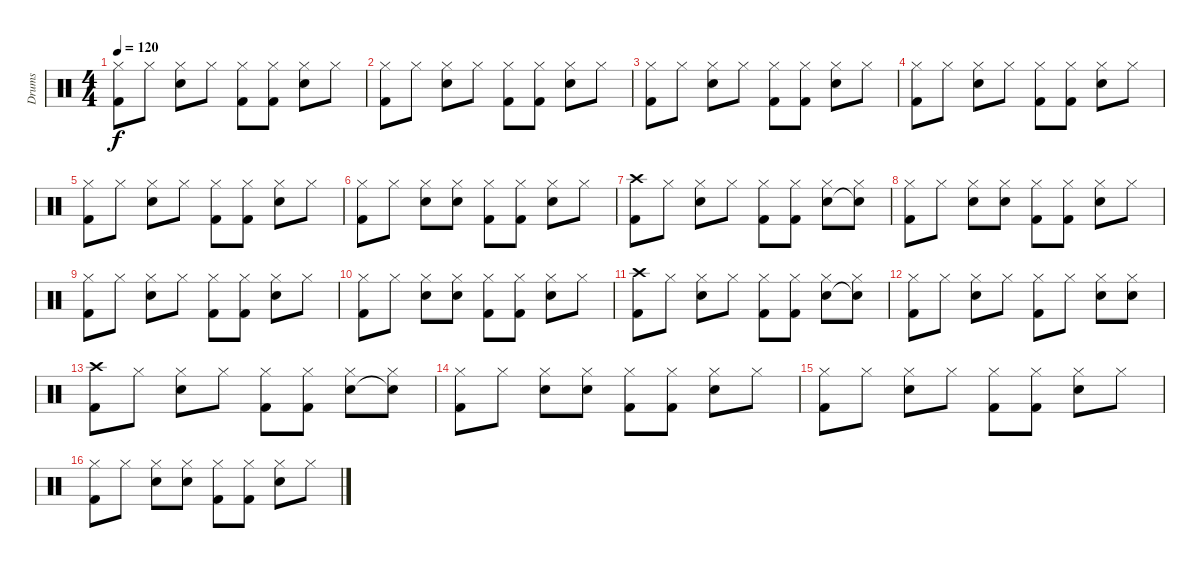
\track ("Drums" "Drums") {instrument percussion}
\staff {score}
\articulation defaults
\ts (4 4)
\tempo 120
\clef neutral
\ks c
("Hi-Hat (closed)" "Kick (hit) 2").8{dy f} "Hi-Hat (closed)".8 ("Hi-Hat (closed)" "Snare (hit) 2").8 "Hi-Hat (closed)".8 ("Hi-Hat (closed)" "Kick (hit) 2").8 ("Hi-Hat (closed)" "Kick (hit) 2").8 ("Hi-Hat (closed)" "Snare (hit) 2").8 "Hi-Hat (closed)".8 |
("Hi-Hat (closed)" "Kick (hit) 2").8 "Hi-Hat (closed)".8 ("Hi-Hat (closed)" "Snare (hit) 2").8 "Hi-Hat (closed)".8 ("Hi-Hat (closed)" "Kick (hit) 2").8 ("Hi-Hat (closed)" "Kick (hit) 2").8 ("Hi-Hat (closed)" "Snare (hit) 2").8 "Hi-Hat (closed)".8 |
("Hi-Hat (closed)" "Kick (hit) 2").8 "Hi-Hat (closed)".8 ("Hi-Hat (closed)" "Snare (hit) 2").8 "Hi-Hat (closed)".8 ("Hi-Hat (closed)" "Kick (hit) 2").8 ("Hi-Hat (closed)" "Kick (hit) 2").8 ("Hi-Hat (closed)" "Snare (hit) 2").8 "Hi-Hat (closed)".8 |
("Hi-Hat (closed)" "Kick (hit) 2").8 "Hi-Hat (closed)".8 ("Hi-Hat (closed)" "Snare (hit) 2").8 "Hi-Hat (closed)".8 ("Hi-Hat (closed)" "Kick (hit) 2").8 ("Hi-Hat (closed)" "Kick (hit) 2").8 ("Hi-Hat (closed)" "Snare (hit) 2").8 "Hi-Hat (closed)".8 |
("Hi-Hat (closed)" "Kick (hit) 2").8 "Hi-Hat (closed)".8 ("Hi-Hat (closed)" "Snare (hit) 2").8 "Hi-Hat (closed)".8 ("Hi-Hat (closed)" "Kick (hit) 2").8 ("Hi-Hat (closed)" "Kick (hit) 2").8 ("Hi-Hat (closed)" "Snare (hit) 2").8 "Hi-Hat (closed)".8 |
("Hi-Hat (closed)" "Kick (hit) 2").8 "Hi-Hat (closed)".8 ("Hi-Hat (closed)" "Snare (hit) 2").8 ("Hi-Hat (closed)" "Snare (hit) 2").8 ("Hi-Hat (closed)" "Kick (hit) 2").8 ("Hi-Hat (closed)" "Kick (hit) 2").8 ("Hi-Hat (closed)" "Snare (hit) 2").8 "Hi-Hat (closed)".8 |
("Kick (hit) 2" "Crash high (hit)").8 "Hi-Hat (closed)".8 ("Hi-Hat (closed)" "Snare (hit) 2").8 "Hi-Hat (closed)".8 ("Hi-Hat (closed)" "Kick (hit) 2").8 ("Hi-Hat (closed)" "Kick (hit) 2").8 ("Hi-Hat (closed)" "Snare (hit) 2").8 ("Hi-Hat (closed)" "Snare (hit)"{t}).8 |
("Hi-Hat (closed)" "Kick (hit) 2").8 "Hi-Hat (closed)".8 ("Hi-Hat (closed)" "Snare (hit) 2").8 ("Hi-Hat (closed)" "Snare (hit) 2").8 ("Hi-Hat (closed)" "Kick (hit) 2").8 ("Hi-Hat (closed)" "Kick (hit) 2").8 ("Hi-Hat (closed)" "Snare (hit) 2").8 "Hi-Hat (closed)".8 |
("Hi-Hat (closed)" "Kick (hit) 2").8 "Hi-Hat (closed)".8 ("Hi-Hat (closed)" "Snare (hit) 2").8 "Hi-Hat (closed)".8 ("Hi-Hat (closed)" "Kick (hit) 2").8 ("Hi-Hat (closed)" "Kick (hit) 2").8 ("Hi-Hat (closed)" "Snare (hit) 2").8 "Hi-Hat (closed)".8 |
("Hi-Hat (closed)" "Kick (hit) 2").8 "Hi-Hat (closed)".8 ("Hi-Hat (closed)" "Snare (hit) 2").8 ("Hi-Hat (closed)" "Snare (hit) 2").8 ("Hi-Hat (closed)" "Kick (hit) 2").8 ("Hi-Hat (closed)" "Kick (hit) 2").8 ("Hi-Hat (closed)" "Snare (hit) 2").8 "Hi-Hat (closed)".8 |
("Kick (hit) 2" "Crash high (hit)").8 "Hi-Hat (closed)".8 ("Hi-Hat (closed)" "Snare (hit) 2").8 "Hi-Hat (closed)".8 ("Hi-Hat (closed)" "Kick (hit) 2").8 ("Hi-Hat (closed)" "Kick (hit) 2").8 ("Hi-Hat (closed)" "Snare (hit) 2").8 ("Hi-Hat (closed)" "Snare (hit)"{t}).8 |
("Hi-Hat (closed)" "Kick (hit) 2").8 "Hi-Hat (closed)".8 ("Hi-Hat (closed)" "Snare (hit) 2").8 "Hi-Hat (closed)".8 ("Hi-Hat (closed)" "Kick (hit) 2").8 "Hi-Hat (closed)".8 ("Hi-Hat (closed)" "Snare (hit) 2").8 ("Hi-Hat (closed)" "Snare (hit) 2").8 |
("Kick (hit) 2" "Crash high (hit)").8 "Hi-Hat (closed)".8 ("Hi-Hat (closed)" "Snare (hit) 2").8 "Hi-Hat (closed)".8 ("Hi-Hat (closed)" "Kick (hit) 2").8 ("Hi-Hat (closed)" "Kick (hit) 2").8 ("Hi-Hat (closed)" "Snare (hit) 2").8 ("Hi-Hat (closed)" "Snare (hit)"{t}).8 |
("Hi-Hat (closed)" "Kick (hit) 2").8 "Hi-Hat (closed)".8 ("Hi-Hat (closed)" "Snare (hit) 2").8 ("Hi-Hat (closed)" "Snare (hit) 2").8 ("Hi-Hat (closed)" "Kick (hit) 2").8 ("Hi-Hat (closed)" "Kick (hit) 2").8 ("Hi-Hat (closed)" "Snare (hit) 2").8 "Hi-Hat (closed)".8 |
("Hi-Hat (closed)" "Kick (hit) 2").8 "Hi-Hat (closed)".8 ("Hi-Hat (closed)" "Snare (hit) 2").8 "Hi-Hat (closed)".8 ("Hi-Hat (closed)" "Kick (hit) 2").8 ("Hi-Hat (closed)" "Kick (hit) 2").8 ("Hi-Hat (closed)" "Snare (hit) 2").8 "Hi-Hat (closed)".8 |
("Hi-Hat (closed)" "Kick (hit) 2").8 "Hi-Hat (closed)".8 ("Hi-Hat (closed)" "Snare (hit) 2").8 ("Hi-Hat (closed)" "Snare (hit) 2").8 ("Hi-Hat (closed)" "Kick (hit) 2").8 ("Hi-Hat (closed)" "Kick (hit) 2").8 ("Hi-Hat (closed)" "Snare (hit) 2").8 "Hi-Hat (closed)".8
